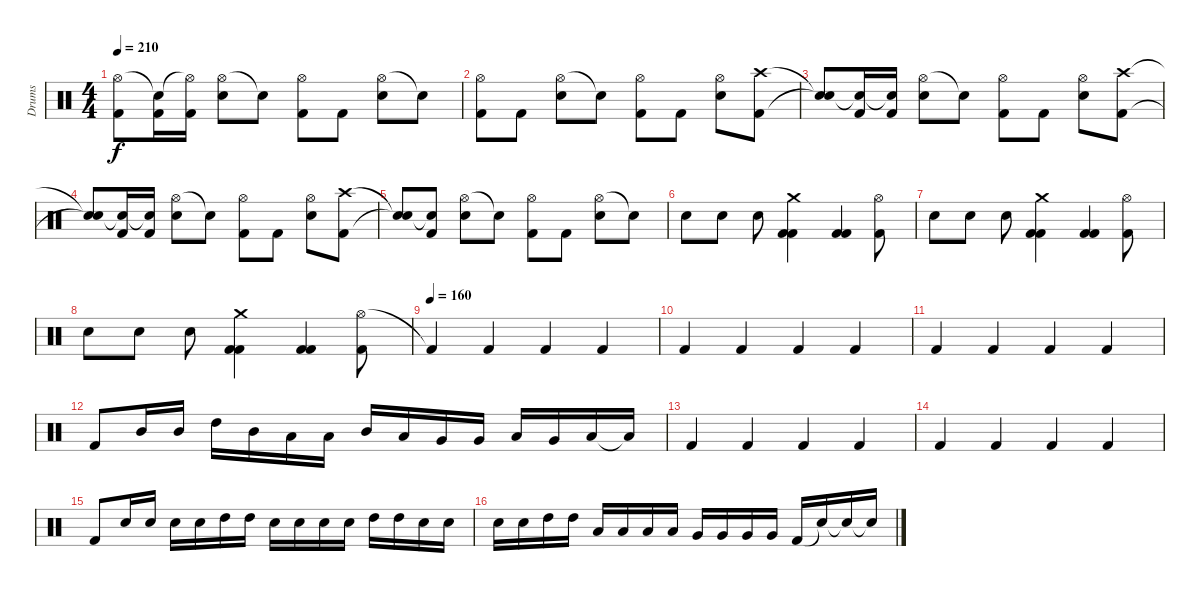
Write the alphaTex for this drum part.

\track ("Drums" "Drums") {instrument percussion}
\staff {score}
\articulation defaults
\ts (4 4)
\tempo 210
\clef neutral
\ks c
("Hi-Hat (open)"{t} "Kick (hit) 2"{t}).8{dy f} ("Snare (hit)"{t} "Kick (hit) 2").16 ("Hi-Hat (open)"{t} "Kick (hit) 2").16 ("Hi-Hat (open)" "Electric Snare (hit)").8 "Snare (hit)"{t}.8 ("Hi-Hat (open)" "Kick (hit) 2").8 "Kick (hit) 2".8 ("Hi-Hat (open)" "Electric Snare (hit)").8 "Snare (hit)"{t}.8 |
("Hi-Hat (open)" "Kick (hit) 2").8 "Kick (hit) 2".8 ("Hi-Hat (open)" "Electric Snare (hit)").8 "Snare (hit)"{t}.8 ("Hi-Hat (open)" "Kick (hit) 2").8 "Kick (hit) 2".8 ("Hi-Hat (open)" "Electric Snare (hit)").8 ("Crash high (hit)" "Kick (hit) 2").8 |
("Snare (hit)"{t} "Snare (hit)"{t}).8 ("Snare (hit)"{t} "Kick (hit) 2").16 ("Snare (hit)"{t} "Kick (hit) 2").16 ("Hi-Hat (open)" "Electric Snare (hit)").8 "Snare (hit)"{t}.8 ("Hi-Hat (open)" "Kick (hit) 2").8 "Kick (hit) 2".8 ("Hi-Hat (open)" "Electric Snare (hit)").8 ("Crash high (hit)" "Kick (hit) 2").8 |
("Snare (hit)"{t} "Snare (hit)"{t}).8 ("Snare (hit)"{t} "Kick (hit) 2").16 ("Snare (hit)"{t} "Kick (hit) 2").16 ("Hi-Hat (open)" "Electric Snare (hit)").8 "Snare (hit)"{t}.8 ("Hi-Hat (open)" "Kick (hit) 2").8 "Kick (hit) 2".8 ("Hi-Hat (open)" "Electric Snare (hit)").8 ("Crash high (hit)" "Kick (hit) 2").8 |
("Snare (hit)"{t} "Snare (hit)"{t}).8 ("Snare (hit)"{t} "Kick (hit) 2").8 ("Hi-Hat (open)" "Electric Snare (hit)").8 "Snare (hit)"{t}.8 ("Hi-Hat (open)" "Kick (hit) 2").8 "Kick (hit) 2".8 ("Hi-Hat (open)" "Electric Snare (hit)").8 "Snare (hit)"{t}.8 |
"Electric Snare (hit)".8 "Electric Snare (hit)".8 "Electric Snare (hit)".8 ("Crash medium (hit)" "Kick (hit) 2" "Kick (hit) 2").4 ("Kick (hit) 2" "Kick (hit) 2").4 ("Hi-Hat (open)" "Kick (hit) 2").8 |
"Electric Snare (hit)".8 "Electric Snare (hit)".8 "Electric Snare (hit)".8 ("Crash medium (hit)" "Kick (hit) 2" "Kick (hit) 2").4 ("Kick (hit) 2" "Kick (hit) 2").4 ("Hi-Hat (open)" "Kick (hit) 2").8 |
"Electric Snare (hit)".8 "Electric Snare (hit)".8 "Electric Snare (hit)".8 ("Crash medium (hit)" "Kick (hit) 2" "Kick (hit) 2").4 ("Kick (hit) 2" "Kick (hit) 2").4 ("Hi-Hat (open)" "Kick (hit) 2").8 |
\tempo (160)
"Kick (hit) 2"{t}.4 "Kick (hit) 2".4 "Kick (hit) 2".4 "Kick (hit) 2".4 |
"Kick (hit) 2".4 "Kick (hit) 2".4 "Kick (hit) 2".4 "Kick (hit) 2".4 |
"Kick (hit) 2".4 "Kick (hit) 2".4 "Kick (hit) 2".4 "Kick (hit) 2".4 |
"Kick (hit) 2".8 "Mid Tom (hit)".16 "Mid Tom (hit)".16 "High Tom (hit)".16 "Mid Tom (hit)".16 "Low Tom (hit)".16 "Low Tom (hit)".16 "Mid Tom (hit)".16 "Low Tom (hit)".16 "Very Low Tom (hit)".16 "Very Low Tom (hit)".16 "Low Tom (hit)".16 "Very Low Tom (hit)".16 "Low Floor Tom (hit)".16 "Low Floor Tom (hit)"{t}.16 |
"Kick (hit) 2".4 "Kick (hit) 2".4 "Kick (hit) 2".4 "Kick (hit) 2".4 |
"Kick (hit) 2".4 "Kick (hit) 2".4 "Kick (hit) 2".4 "Kick (hit) 2".4 |
"Kick (hit) 2".8 "Electric Snare (hit)".16 "Electric Snare (hit)".16 "Electric Snare (hit)".16 "Electric Snare (hit)".16 "High Tom (hit)".16 "High Tom (hit)".16 "Electric Snare (hit)".16 "Electric Snare (hit)".16 "Electric Snare (hit)".16 "Electric Snare (hit)".16 "High Tom (hit)".16 "High Tom (hit)".16 "Electric Snare (hit)".16 "Electric Snare (hit)".16 |
"Electric Snare (hit)".16 "Electric Snare (hit)".16 "High Tom (hit)".16 "High Tom (hit)".16 "Low Tom (hit)".16 "Low Tom (hit)".16 "Low Tom (hit)".16 "Low Tom (hit)".16 "Very Low Tom (hit)".16 "Very Low Tom (hit)".16 "Very Low Tom (hit)".16 "Very Low Tom (hit)".16 "Kick (hit) 2".16 "Snare (hit)"{t}.16 "Snare (hit)"{t}.16 "Snare (hit)"{t}.16
